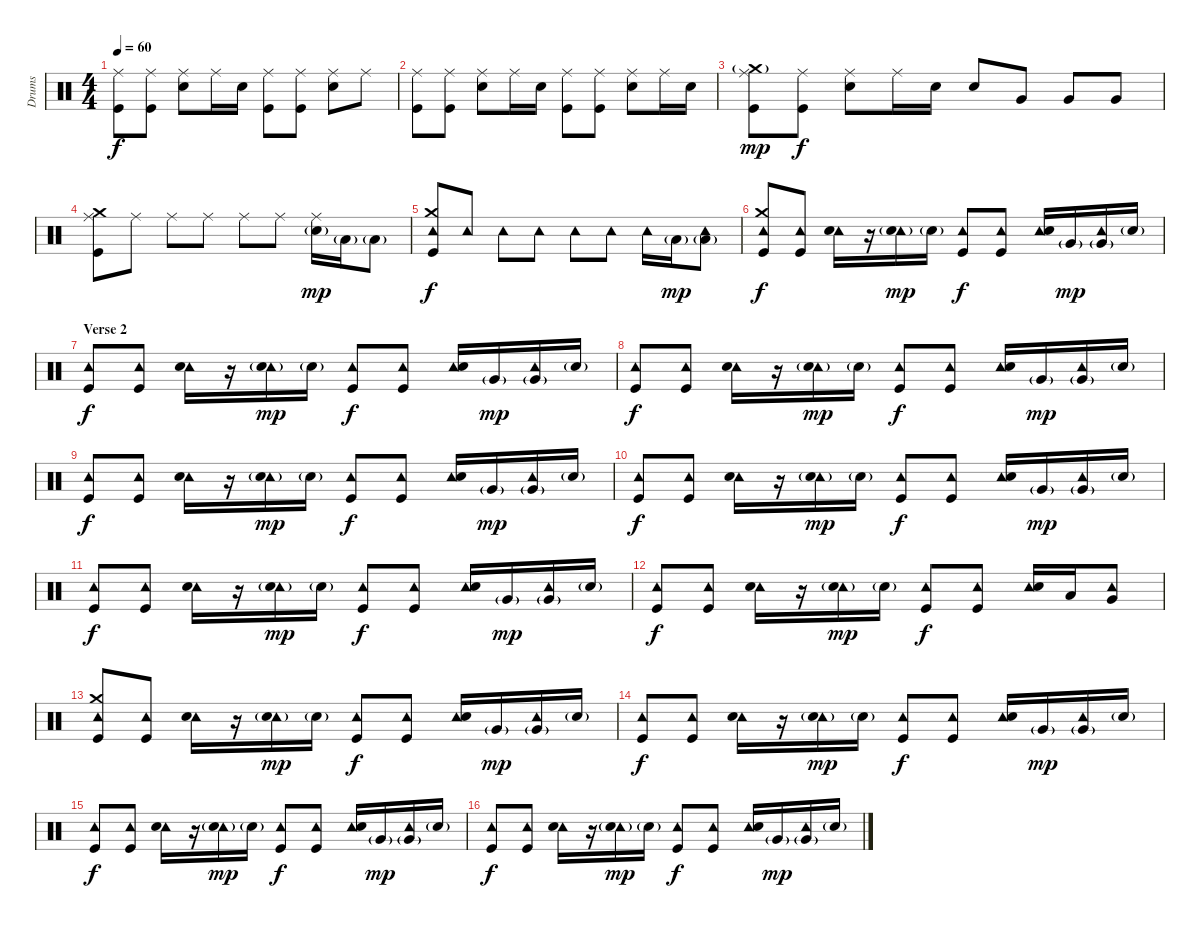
\track ("Drums" "Drums") {instrument percussion}
\staff {score}
\articulation defaults
\ts (4 4)
\tempo 60
\clef neutral
\ks c
("Ride (middle)" "Kick (hit)").8{dy f} ("Ride (middle)" "Kick (hit)").8 ("Ride (middle)" "Snare (hit) 2").8 "Ride (middle)".16 "Snare (hit) 2".16 ("Ride (middle)" "Kick (hit)").8 ("Ride (middle)" "Kick (hit)").8 ("Ride (middle)" "Snare (hit) 2").8 "Ride (middle)".8 |
("Ride (middle)" "Kick (hit)").8 ("Ride (middle)" "Kick (hit)").8 ("Ride (middle)" "Snare (hit) 2").8 "Ride (middle)".16 "Snare (hit) 2".16 ("Ride (middle)" "Kick (hit)").8 ("Ride (middle)" "Kick (hit)").8 ("Ride (middle)" "Snare (hit) 2").8 "Ride (middle)".16 "Snare (hit) 2".16 |
("Ride (middle)" "Crash medium (hit)"{g} "Kick (hit)").8{dy mp} ("Ride (middle)" "Kick (hit)").8{dy f} ("Ride (middle)" "Snare (hit) 2").8 "Ride (middle)".16 "Snare (hit) 2".16 "Snare (hit) 2".8 "Very Low Tom (hit)".8 "Very Low Tom (hit)".8 "Very Low Tom (hit)".8 |
("Ride (middle)" "Crash medium (hit)" "Kick (hit)").8 "Ride (middle)".8 "Ride (middle)".8 "Ride (middle)".8 "Ride (middle)".8 "Ride (middle)".8 ("Ride (middle)" "Snare (hit) 2"{g}).16{dy mp} "Low Tom (hit)"{g}.16 "Low Tom (hit)"{g}.8 |
("Tambourine (hit)" "Crash medium (hit)" "Kick (hit)").8{dy f} "Tambourine (hit)".8 "Tambourine (hit)".8 "Tambourine (hit)".8 "Tambourine (hit)".8 "Tambourine (hit)".8 "Tambourine (hit)".16 "Low Tom (hit)"{g}.16{dy mp} ("Tambourine (hit)" "Low Tom (hit)"{g}).8 |
("Tambourine (hit)" "Crash medium (hit)" "Kick (hit)").8{dy f} ("Tambourine (hit)" "Kick (hit)").8 ("Tambourine (hit)" "Snare (hit) 2").16 r.16 ("Tambourine (hit)" "Snare (hit) 2"{g}).16{dy mp} "Snare (hit) 2"{g}.16 ("Tambourine (hit)" "Kick (hit)").8{dy f} ("Tambourine (hit)" "Kick (hit)").8 ("Tambourine (hit)" "Snare (hit) 2").16 "Very Low Tom (hit)"{g}.16{dy mp} ("Tambourine (hit)" "Very Low Tom (hit)"{g}).16 "Snare (hit) 2"{g}.16 |
\section ("" "Verse 2")
("Tambourine (hit)" "Kick (hit)").8{dy f} ("Tambourine (hit)" "Kick (hit)").8 ("Tambourine (hit)" "Snare (hit) 2").16 r.16 ("Tambourine (hit)" "Snare (hit) 2"{g}).16{dy mp} "Snare (hit) 2"{g}.16 ("Tambourine (hit)" "Kick (hit)").8{dy f} ("Tambourine (hit)" "Kick (hit)").8 ("Tambourine (hit)" "Snare (hit) 2").16 "Very Low Tom (hit)"{g}.16{dy mp} ("Tambourine (hit)" "Very Low Tom (hit)"{g}).16 "Snare (hit) 2"{g}.16 |
("Tambourine (hit)" "Kick (hit)").8{dy f} ("Tambourine (hit)" "Kick (hit)").8 ("Tambourine (hit)" "Snare (hit) 2").16 r.16 ("Tambourine (hit)" "Snare (hit) 2"{g}).16{dy mp} "Snare (hit) 2"{g}.16 ("Tambourine (hit)" "Kick (hit)").8{dy f} ("Tambourine (hit)" "Kick (hit)").8 ("Tambourine (hit)" "Snare (hit) 2").16 "Very Low Tom (hit)"{g}.16{dy mp} ("Tambourine (hit)" "Very Low Tom (hit)"{g}).16 "Snare (hit) 2"{g}.16 |
("Tambourine (hit)" "Kick (hit)").8{dy f} ("Tambourine (hit)" "Kick (hit)").8 ("Tambourine (hit)" "Snare (hit) 2").16 r.16 ("Tambourine (hit)" "Snare (hit) 2"{g}).16{dy mp} "Snare (hit) 2"{g}.16 ("Tambourine (hit)" "Kick (hit)").8{dy f} ("Tambourine (hit)" "Kick (hit)").8 ("Tambourine (hit)" "Snare (hit) 2").16 "Very Low Tom (hit)"{g}.16{dy mp} ("Tambourine (hit)" "Very Low Tom (hit)"{g}).16 "Snare (hit) 2"{g}.16 |
("Tambourine (hit)" "Kick (hit)").8{dy f} ("Tambourine (hit)" "Kick (hit)").8 ("Tambourine (hit)" "Snare (hit) 2").16 r.16 ("Tambourine (hit)" "Snare (hit) 2"{g}).16{dy mp} "Snare (hit) 2"{g}.16 ("Tambourine (hit)" "Kick (hit)").8{dy f} ("Tambourine (hit)" "Kick (hit)").8 ("Tambourine (hit)" "Snare (hit) 2").16 "Very Low Tom (hit)"{g}.16{dy mp} ("Tambourine (hit)" "Very Low Tom (hit)"{g}).16 "Snare (hit) 2"{g}.16 |
("Tambourine (hit)" "Kick (hit)").8{dy f} ("Tambourine (hit)" "Kick (hit)").8 ("Tambourine (hit)" "Snare (hit) 2").16 r.16 ("Tambourine (hit)" "Snare (hit) 2"{g}).16{dy mp} "Snare (hit) 2"{g}.16 ("Tambourine (hit)" "Kick (hit)").8{dy f} ("Tambourine (hit)" "Kick (hit)").8 ("Tambourine (hit)" "Snare (hit) 2").16 "Very Low Tom (hit)"{g}.16{dy mp} ("Tambourine (hit)" "Very Low Tom (hit)"{g}).16 "Snare (hit) 2"{g}.16 |
("Tambourine (hit)" "Kick (hit)").8{dy f} ("Tambourine (hit)" "Kick (hit)").8 ("Tambourine (hit)" "Snare (hit) 2").16 r.16 ("Tambourine (hit)" "Snare (hit) 2"{g}).16{dy mp} "Snare (hit) 2"{g}.16 ("Tambourine (hit)" "Kick (hit)").8{dy f} ("Tambourine (hit)" "Kick (hit)").8 ("Tambourine (hit)" "Snare (hit) 2").16 "Low Tom (hit)".16 ("Tambourine (hit)" "Very Low Tom (hit)").8 |
("Tambourine (hit)" "Crash medium (hit)" "Kick (hit)").8 ("Tambourine (hit)" "Kick (hit)").8 ("Tambourine (hit)" "Snare (hit) 2").16 r.16 ("Tambourine (hit)" "Snare (hit) 2"{g}).16{dy mp} "Snare (hit) 2"{g}.16 ("Tambourine (hit)" "Kick (hit)").8{dy f} ("Tambourine (hit)" "Kick (hit)").8 ("Tambourine (hit)" "Snare (hit) 2").16 "Very Low Tom (hit)"{g}.16{dy mp} ("Tambourine (hit)" "Very Low Tom (hit)"{g}).16 "Snare (hit) 2"{g}.16 |
("Tambourine (hit)" "Kick (hit)").8{dy f} ("Tambourine (hit)" "Kick (hit)").8 ("Tambourine (hit)" "Snare (hit) 2").16 r.16 ("Tambourine (hit)" "Snare (hit) 2"{g}).16{dy mp} "Snare (hit) 2"{g}.16 ("Tambourine (hit)" "Kick (hit)").8{dy f} ("Tambourine (hit)" "Kick (hit)").8 ("Tambourine (hit)" "Snare (hit) 2").16 "Very Low Tom (hit)"{g}.16{dy mp} ("Tambourine (hit)" "Very Low Tom (hit)"{g}).16 "Snare (hit) 2"{g}.16 |
("Tambourine (hit)" "Kick (hit)").8{dy f} ("Tambourine (hit)" "Kick (hit)").8 ("Tambourine (hit)" "Snare (hit) 2").16 r.16 ("Tambourine (hit)" "Snare (hit) 2"{g}).16{dy mp} "Snare (hit) 2"{g}.16 ("Tambourine (hit)" "Kick (hit)").8{dy f} ("Tambourine (hit)" "Kick (hit)").8 ("Tambourine (hit)" "Snare (hit) 2").16 "Very Low Tom (hit)"{g}.16{dy mp} ("Tambourine (hit)" "Very Low Tom (hit)"{g}).16 "Snare (hit) 2"{g}.16 |
("Tambourine (hit)" "Kick (hit)").8{dy f} ("Tambourine (hit)" "Kick (hit)").8 ("Tambourine (hit)" "Snare (hit) 2").16 r.16 ("Tambourine (hit)" "Snare (hit) 2"{g}).16{dy mp} "Snare (hit) 2"{g}.16 ("Tambourine (hit)" "Kick (hit)").8{dy f} ("Tambourine (hit)" "Kick (hit)").8 ("Tambourine (hit)" "Snare (hit) 2").16 "Very Low Tom (hit)"{g}.16{dy mp} ("Tambourine (hit)" "Very Low Tom (hit)"{g}).16 "Snare (hit) 2"{g}.16
